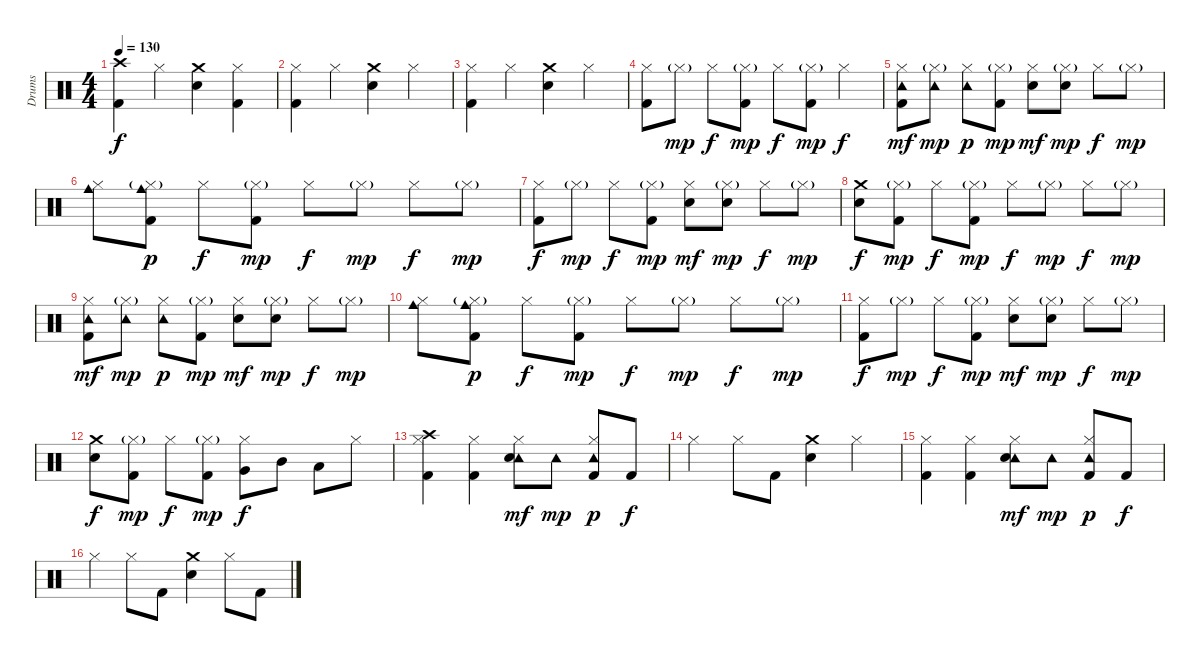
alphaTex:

\track ("Drums" "Drums") {instrument percussion}
\staff {score}
\articulation defaults
\ts (4 4)
\tempo 130
\clef neutral
\ks c
("Crash high (hit)" "Kick (hit) 2").4{dy f} "Hi-Hat (closed)".4 ("Crash medium (hit)" "Snare (hit) 2").4 ("Hi-Hat (closed)" "Kick (hit) 2").4 |
("Hi-Hat (closed)" "Kick (hit) 2").4 "Hi-Hat (closed)".4 ("Crash medium (hit)" "Snare (hit) 2").4 "Hi-Hat (closed)".4 |
("Hi-Hat (closed)" "Kick (hit) 2").4 "Hi-Hat (closed)".4 ("Crash medium (hit)" "Snare (hit) 2").4 "Hi-Hat (closed)".4 |
("Hi-Hat (closed)" "Kick (hit) 2").8 "Hi-Hat (closed)"{g}.8{dy mp} "Hi-Hat (closed)".8{dy f} ("Hi-Hat (closed)"{g} "Kick (hit) 2").8{dy mp} "Hi-Hat (closed)".8{dy f} ("Hi-Hat (closed)"{g} "Kick (hit) 2").8{dy mp} "Hi-Hat (closed)".4{dy f} |
("Tambourine (hit)" "Hi-Hat (closed)" "Kick (hit) 2").8{dy mf} ("Tambourine (hit)" "Hi-Hat (closed)"{g}).8{dy mp} ("Tambourine (hit)" "Hi-Hat (closed)").8{dy p} ("Hi-Hat (closed)"{g} "Kick (hit) 2").8{dy mp} ("Hi-Hat (closed)" "Hand Clap (hit)").8{dy mf} ("Hi-Hat (closed)"{g} "Hand Clap (hit)").8{dy mp} "Hi-Hat (closed)".8{dy f} "Hi-Hat (closed)"{g}.8{dy mp} |
("Hi-Hat (closed)" "Cowbell medium (hit)").8 ("Hi-Hat (closed)"{g} "Cowbell medium (hit)" "Kick (hit) 2").8{dy p} "Hi-Hat (closed)".8{dy f} ("Hi-Hat (closed)"{g} "Kick (hit) 2").8{dy mp} "Hi-Hat (closed)".8{dy f} "Hi-Hat (closed)"{g}.8{dy mp} "Hi-Hat (closed)".8{dy f} "Hi-Hat (closed)"{g}.8{dy mp} |
("Hi-Hat (closed)" "Kick (hit) 2").8{dy f} "Hi-Hat (closed)"{g}.8{dy mp} "Hi-Hat (closed)".8{dy f} ("Hi-Hat (closed)"{g} "Kick (hit) 2").8{dy mp} ("Hi-Hat (closed)" "Hand Clap (hit)").8{dy mf} ("Hi-Hat (closed)"{g} "Hand Clap (hit)").8{dy mp} "Hi-Hat (closed)".8{dy f} "Hi-Hat (closed)"{g}.8{dy mp} |
("Crash medium (hit)" "Snare (hit) 2").8{dy f} ("Hi-Hat (closed)"{g} "Kick (hit) 2").8{dy mp} "Hi-Hat (closed)".8{dy f} ("Hi-Hat (closed)"{g} "Kick (hit) 2").8{dy mp} "Hi-Hat (closed)".8{dy f} "Hi-Hat (closed)"{g}.8{dy mp} "Hi-Hat (closed)".8{dy f} "Hi-Hat (closed)"{g}.8{dy mp} |
("Tambourine (hit)" "Hi-Hat (closed)" "Kick (hit) 2").8{dy mf} ("Tambourine (hit)" "Hi-Hat (closed)"{g}).8{dy mp} ("Tambourine (hit)" "Hi-Hat (closed)").8{dy p} ("Hi-Hat (closed)"{g} "Kick (hit) 2").8{dy mp} ("Hi-Hat (closed)" "Hand Clap (hit)").8{dy mf} ("Hi-Hat (closed)"{g} "Hand Clap (hit)").8{dy mp} "Hi-Hat (closed)".8{dy f} "Hi-Hat (closed)"{g}.8{dy mp} |
("Hi-Hat (closed)" "Cowbell medium (hit)").8 ("Hi-Hat (closed)"{g} "Cowbell medium (hit)" "Kick (hit) 2").8{dy p} "Hi-Hat (closed)".8{dy f} ("Hi-Hat (closed)"{g} "Kick (hit) 2").8{dy mp} "Hi-Hat (closed)".8{dy f} "Hi-Hat (closed)"{g}.8{dy mp} "Hi-Hat (closed)".8{dy f} "Hi-Hat (closed)"{g}.8{dy mp} |
("Hi-Hat (closed)" "Kick (hit) 2").8{dy f} "Hi-Hat (closed)"{g}.8{dy mp} "Hi-Hat (closed)".8{dy f} ("Hi-Hat (closed)"{g} "Kick (hit) 2").8{dy mp} ("Hi-Hat (closed)" "Hand Clap (hit)").8{dy mf} ("Hi-Hat (closed)"{g} "Hand Clap (hit)").8{dy mp} "Hi-Hat (closed)".8{dy f} "Hi-Hat (closed)"{g}.8{dy mp} |
("Crash medium (hit)" "Snare (hit) 2").8{dy f} ("Hi-Hat (closed)"{g} "Kick (hit) 2").8{dy mp} "Hi-Hat (closed)".8{dy f} ("Hi-Hat (closed)"{g} "Kick (hit) 2").8{dy mp} ("Hi-Hat (closed)" "Very Low Tom (hit)").8{dy f} "Mid Tom (hit)".8 "Low Tom (hit)".8 "Hi-Hat (closed)".8 |
("Crash high (hit)" "Hi-Hat (closed)" "Kick (hit) 2").4 ("Hi-Hat (closed)" "Kick (hit) 2").4 ("Tambourine (hit)" "Hi-Hat (closed)" "Snare (hit) 2").8{dy mf} "Tambourine (hit)".8{dy mp} ("Tambourine (hit)" "Hi-Hat (closed)" "Kick (hit) 2").8{dy p} "Kick (hit) 2".8{dy f} |
"Hi-Hat (closed)".4 "Hi-Hat (closed)".8 "Kick (hit) 2".8 ("Crash medium (hit)" "Snare (hit) 2").4 "Hi-Hat (closed)".4 |
("Hi-Hat (closed)" "Kick (hit) 2").4 ("Hi-Hat (closed)" "Kick (hit) 2").4 ("Tambourine (hit)" "Hi-Hat (closed)" "Snare (hit) 2").8{dy mf} "Tambourine (hit)".8{dy mp} ("Tambourine (hit)" "Hi-Hat (closed)" "Kick (hit) 2").8{dy p} "Kick (hit) 2".8{dy f} |
"Hi-Hat (closed)".4 "Hi-Hat (closed)".8 "Kick (hit) 2".8 ("Crash medium (hit)" "Snare (hit) 2").4 "Hi-Hat (closed)".8 "Kick (hit) 2".8
